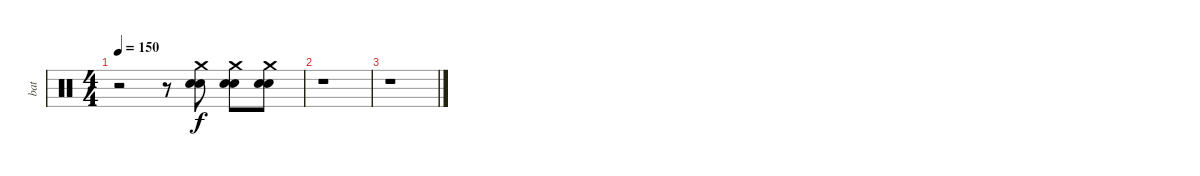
\track ("bat" "bat") {instrument percussion}
\staff {score}
\articulation defaults
\ts (4 4)
\tempo 150
\clef neutral
\ks c
r.2{dy f} r.8 ("Snare (hit) 2" "Electric Snare (hit)" "Crash medium (hit)").8 ("Snare (hit) 2" "Electric Snare (hit)" "Crash medium (hit)").8 ("Snare (hit) 2" "Electric Snare (hit)" "Crash medium (hit)").8 |
r.1 |
r.1
